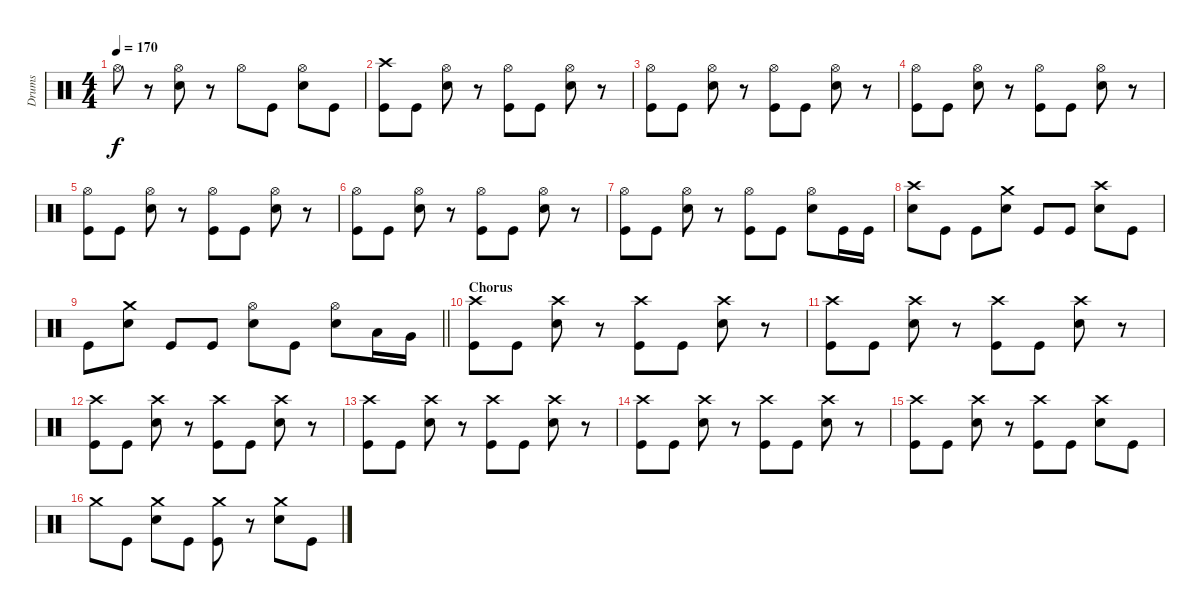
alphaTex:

\track ("Drums" "Drums") {instrument percussion}
\staff {score}
\articulation defaults
\ts (4 4)
\tempo 170
\clef neutral
\ks c "Hi-Hat (open)".8{dy f}
r.8 ("Hi-Hat (open)" "Snare (hit) 2").8 r.8 "Hi-Hat (open)".8 "Kick (hit)".8 ("Hi-Hat (open)" "Snare (hit) 2").8 "Kick (hit)".8 |
("Crash high (hit)" "Kick (hit)").8 "Kick (hit)".8 ("Hi-Hat (open)" "Snare (hit) 2").8 r.8 ("Hi-Hat (open)" "Kick (hit)").8 "Kick (hit)".8 ("Hi-Hat (open)" "Snare (hit) 2").8 r.8 |
("Hi-Hat (open)" "Kick (hit)").8 "Kick (hit)".8 ("Hi-Hat (open)" "Snare (hit) 2").8 r.8 ("Hi-Hat (open)" "Kick (hit)").8 "Kick (hit)".8 ("Hi-Hat (open)" "Snare (hit) 2").8 r.8 |
("Hi-Hat (open)" "Kick (hit)").8 "Kick (hit)".8 ("Hi-Hat (open)" "Snare (hit) 2").8 r.8 ("Hi-Hat (open)" "Kick (hit)").8 "Kick (hit)".8 ("Hi-Hat (open)" "Snare (hit) 2").8 r.8 |
("Hi-Hat (open)" "Kick (hit)").8 "Kick (hit)".8 ("Hi-Hat (open)" "Snare (hit) 2").8 r.8 ("Hi-Hat (open)" "Kick (hit)").8 "Kick (hit)".8 ("Hi-Hat (open)" "Snare (hit) 2").8 r.8 |
("Hi-Hat (open)" "Kick (hit)").8 "Kick (hit)".8 ("Hi-Hat (open)" "Snare (hit) 2").8 r.8 ("Hi-Hat (open)" "Kick (hit)").8 "Kick (hit)".8 ("Hi-Hat (open)" "Snare (hit) 2").8 r.8 |
("Hi-Hat (open)" "Kick (hit)").8 "Kick (hit)".8 ("Hi-Hat (open)" "Snare (hit) 2").8 r.8 ("Hi-Hat (open)" "Kick (hit)").8 "Kick (hit)".8 ("Hi-Hat (open)" "Snare (hit) 2").8 "Kick (hit)".16 "Kick (hit)".16 |
("Crash high (hit)" "Snare (hit) 2").8 "Kick (hit)".8 "Kick (hit)".8 ("Crash medium (hit)" "Snare (hit) 2").8 "Kick (hit)".8 "Kick (hit)".8 ("Crash high (hit)" "Snare (hit) 2").8 "Kick (hit)".8 |
\barLineRight lightlight "Kick (hit)".8
("Crash medium (hit)" "Snare (hit) 2").8 "Kick (hit)".8 "Kick (hit)".8 ("Hi-Hat (open)" "Snare (hit) 2").8 "Kick (hit)".8 ("Hi-Hat (open)" "Snare (hit) 2").8 "Low Tom (hit)".16 "Very Low Tom (hit)".16 |
\section ("" "Chorus")
("Crash high (hit)" "Kick (hit)").8 "Kick (hit)".8 ("Crash high (hit)" "Snare (hit) 2").8 r.8 ("Crash high (hit)" "Kick (hit)").8 "Kick (hit)".8 ("Crash high (hit)" "Snare (hit) 2").8 r.8 |
("Crash high (hit)" "Kick (hit)").8 "Kick (hit)".8 ("Crash high (hit)" "Snare (hit) 2").8 r.8 ("Crash high (hit)" "Kick (hit)").8 "Kick (hit)".8 ("Crash high (hit)" "Snare (hit) 2").8 r.8 |
("Crash high (hit)" "Kick (hit)").8 "Kick (hit)".8 ("Crash high (hit)" "Snare (hit) 2").8 r.8 ("Crash high (hit)" "Kick (hit)").8 "Kick (hit)".8 ("Crash high (hit)" "Snare (hit) 2").8 r.8 |
("Crash high (hit)" "Kick (hit)").8 "Kick (hit)".8 ("Crash high (hit)" "Snare (hit) 2").8 r.8 ("Crash high (hit)" "Kick (hit)").8 "Kick (hit)".8 ("Crash high (hit)" "Snare (hit) 2").8 r.8 |
("Crash high (hit)" "Kick (hit)").8 "Kick (hit)".8 ("Crash high (hit)" "Snare (hit) 2").8 r.8 ("Crash high (hit)" "Kick (hit)").8 "Kick (hit)".8 ("Crash high (hit)" "Snare (hit) 2").8 r.8 |
("Crash high (hit)" "Kick (hit)").8 "Kick (hit)".8 ("Crash high (hit)" "Snare (hit) 2").8 r.8 ("Crash high (hit)" "Kick (hit)").8 "Kick (hit)".8 ("Crash high (hit)" "Snare (hit) 2").8 "Kick (hit)".8 |
"Crash medium (hit)".8 "Kick (hit)".8 ("Crash medium (hit)" "Snare (hit) 2").8 "Kick (hit)".8 ("Crash medium (hit)" "Kick (hit)").8 r.8 ("Crash medium (hit)" "Snare (hit) 2").8 "Kick (hit)".8
